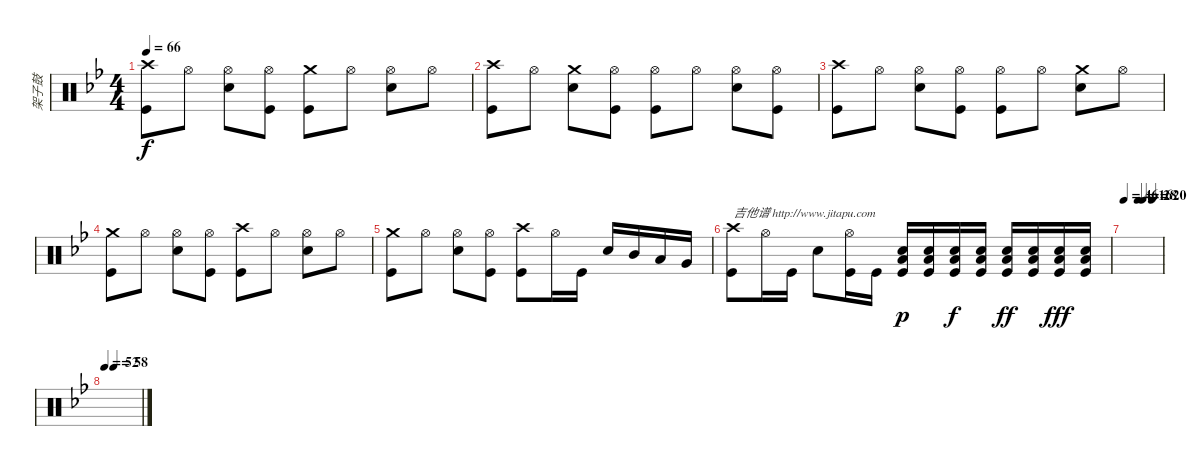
\track ("架子鼓" "架子鼓") {instrument percussion}
\staff {score}
\articulation defaults
\ts (4 4)
\tempo 66
\clef neutral
\ks bb
("Crash high (hit)" "Kick (hit)").8{dy f} "Hi-Hat (open)".8 ("Hi-Hat (open)" "Electric Snare (hit)").8 ("Hi-Hat (open)" "Kick (hit)").8 ("Crash medium (hit)" "Kick (hit)").8 "Hi-Hat (open)".8 ("Hi-Hat (open)" "Electric Snare (hit)").8 "Hi-Hat (open)".8 |
("Crash high (hit)" "Kick (hit)").8 "Hi-Hat (open)".8 ("Crash medium (hit)" "Electric Snare (hit)").8 ("Hi-Hat (open)" "Kick (hit)").8 ("Hi-Hat (open)" "Kick (hit)").8 "Hi-Hat (open)".8 ("Hi-Hat (open)" "Electric Snare (hit)").8 ("Hi-Hat (open)" "Kick (hit)").8 |
("Crash high (hit)" "Kick (hit)").8 "Hi-Hat (open)".8 ("Hi-Hat (open)" "Electric Snare (hit)").8 ("Hi-Hat (open)" "Kick (hit)").8 ("Hi-Hat (open)" "Kick (hit)").8 "Hi-Hat (open)".8 ("Crash medium (hit)" "Electric Snare (hit)").8 "Hi-Hat (open)".8 |
("Crash medium (hit)" "Kick (hit)").8 "Hi-Hat (open)".8 ("Hi-Hat (open)" "Electric Snare (hit)").8 ("Hi-Hat (open)" "Kick (hit)").8 ("Crash high (hit)" "Kick (hit)").8 "Hi-Hat (open)".8 ("Hi-Hat (open)" "Electric Snare (hit)").8 "Hi-Hat (open)".8 |
("Crash medium (hit)" "Kick (hit)").8 "Hi-Hat (open)".8 ("Hi-Hat (open)" "Electric Snare (hit)").8 ("Hi-Hat (open)" "Kick (hit)").8 ("Crash high (hit)" "Kick (hit)").8 "Hi-Hat (open)".16 "Kick (hit)".16 "Electric Snare (hit)".16 "Mid Tom (hit)".16 "Low Tom (hit)".16 "Very Low Tom (hit)".16 |
("Crash high (hit)" "Kick (hit)").8{txt "吉他谱 http://www.jitapu.com"} "Hi-Hat (open)".16 "Kick (hit)".16 "Electric Snare (hit)".8 ("Hi-Hat (open)" "Kick (hit)").16 "Kick (hit)".16 ("Electric Snare (hit)" "Low Floor Tom (hit)" "Kick (hit)").16{dy p} ("Electric Snare (hit)" "Low Floor Tom (hit)" "Kick (hit)").16 ("Electric Snare (hit)" "Low Floor Tom (hit)" "Kick (hit)").16{dy f} ("Electric Snare (hit)" "Low Floor Tom (hit)" "Kick (hit)").16 ("Electric Snare (hit)" "Low Floor Tom (hit)" "Kick (hit)").16{dy ff} ("Electric Snare (hit)" "Low Floor Tom (hit)" "Kick (hit)").16 ("Electric Snare (hit)" "Low Floor Tom (hit)" "Kick (hit)").16{dy fff} ("Electric Snare (hit)" "Low Floor Tom (hit)" "Kick (hit)").16 |
\tempo 46
\tempo (16 0.375)
\tempo (28 0.5)
\tempo (20 0.75)
|
\tempo 52
\tempo (58 0.25)
